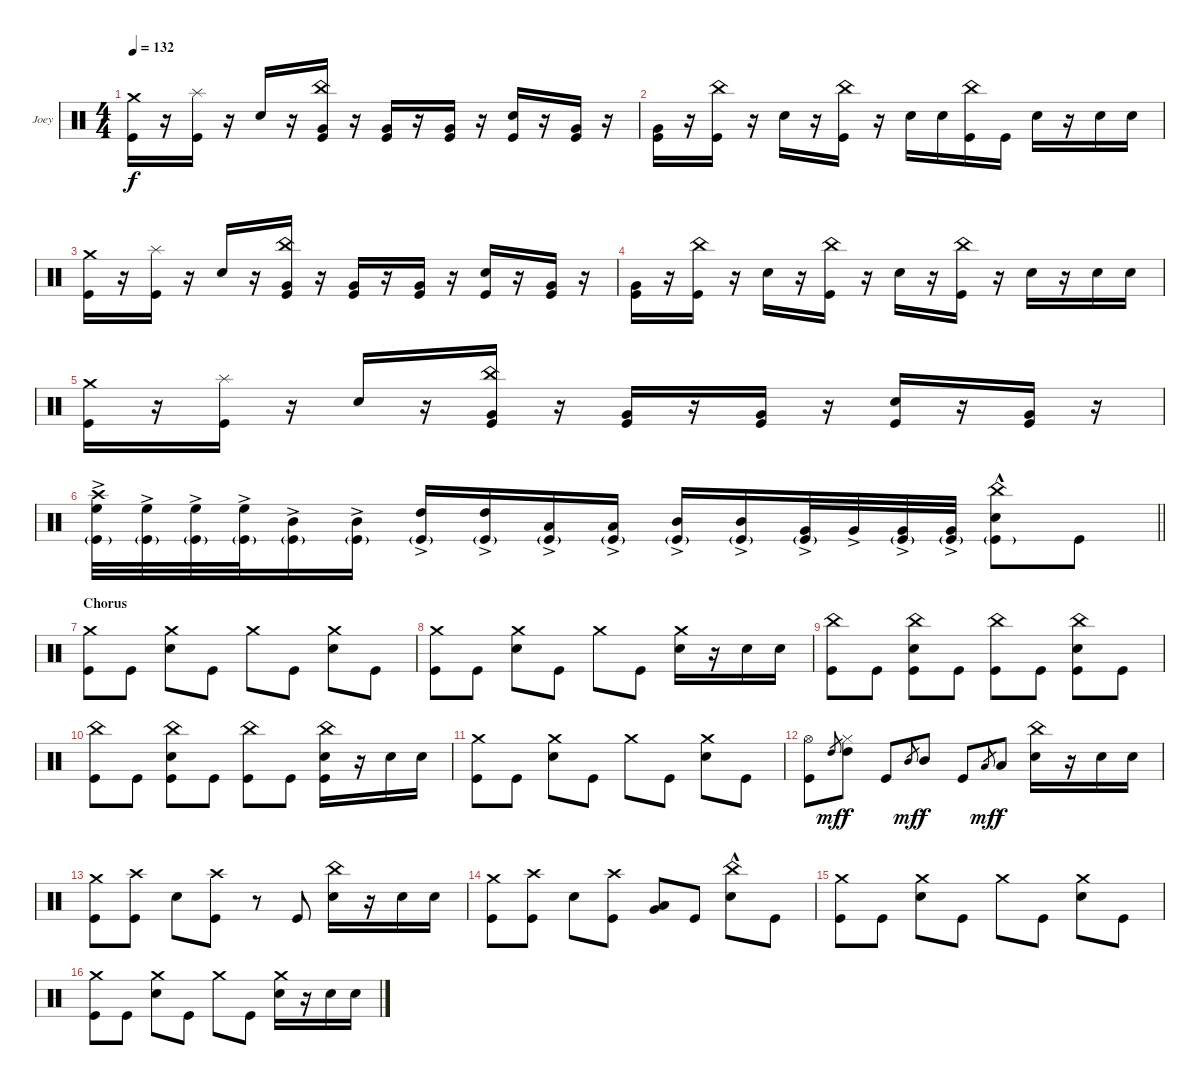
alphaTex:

\bracketExtendMode groupsimilarinstruments
\firstSystemTrackNameOrientation horizontal
\otherSystemsTrackNameOrientation horizontal
\track ("Joey Jordison" "Joey") {instrument percussion}
\staff {score}
\articulation defaults
\ts (4 4)
\tempo 132
\clef neutral
\ks c
("Crash medium (hit)" "Kick (hit)").16{dy f} r.16 ("Splash (hit)" "Kick (hit)").16 r.16 "Snare (hit) 2".16 r.16 ("China (hit)" "Very Low Tom (hit)" "Kick (hit)").16 r.16 ("Very Low Tom (hit)" "Kick (hit)").16 r.16 ("Very Low Tom (hit)" "Kick (hit)").16 r.16 ("Snare (hit) 2" "Kick (hit)").16 r.16 ("Very Low Tom (hit)" "Kick (hit)").16 r.16 |
("Very Low Tom (hit)" "Kick (hit)").16 r.16 ("China (hit)" "Kick (hit)").16 r.16 "Snare (hit) 2".16 r.16 ("China (hit)" "Kick (hit)").16 r.16 "Snare (hit) 2".16 "Snare (hit) 2".16 ("China (hit)" "Kick (hit)").16 "Kick (hit)".16 "Snare (hit) 2".16 r.16 "Snare (hit) 2".16 "Snare (hit) 2".16 |
("Crash medium (hit)" "Kick (hit)").16 r.16 ("Splash (hit)" "Kick (hit)").16 r.16 "Snare (hit) 2".16 r.16 ("China (hit)" "Very Low Tom (hit)" "Kick (hit)").16 r.16 ("Very Low Tom (hit)" "Kick (hit)").16 r.16 ("Very Low Tom (hit)" "Kick (hit)").16 r.16 ("Snare (hit) 2" "Kick (hit)").16 r.16 ("Very Low Tom (hit)" "Kick (hit)").16 r.16 |
("Very Low Tom (hit)" "Kick (hit)").16 r.16 ("China (hit)" "Kick (hit)").16 r.16 "Snare (hit) 2".16 r.16 ("China (hit)" "Kick (hit)").16 r.16 "Snare (hit) 2".16 r.16 ("China (hit)" "Kick (hit)").16 r.16 "Snare (hit) 2".16 r.16 "Snare (hit) 2".16 "Snare (hit) 2".16 |
("Crash medium (hit)" "Kick (hit)").16 r.16 ("Splash (hit)" "Kick (hit)").16 r.16 "Snare (hit) 2".16 r.16 ("China (hit)" "Very Low Tom (hit)" "Kick (hit)").16 r.16 ("Very Low Tom (hit)" "Kick (hit)").16 r.16 ("Very Low Tom (hit)" "Kick (hit)").16 r.16 ("Snare (hit) 2" "Kick (hit)").16 r.16 ("Very Low Tom (hit)" "Kick (hit)").16 r.16 |
\barLineRight lightlight
("High Floor Tom (hit)"{ac} "Crash high (hit)" "Kick (hit)"{g}).32 ("High Floor Tom (hit)"{ac} "Kick (hit)"{g}).32 ("High Floor Tom (hit)"{ac} "Kick (hit)"{g}).32 ("High Floor Tom (hit)"{ac} "Kick (hit)"{g}).32 ("Mid Tom (hit)"{ac} "Kick (hit)"{g}).16 ("Mid Tom (hit)"{ac} "Kick (hit)"{g}).16 ("High Tom (hit)"{ac} "Kick (hit)"{g}).16 ("High Tom (hit)"{ac} "Kick (hit)"{g}).16 ("Low Tom (hit)"{ac} "Kick (hit)"{g}).16 ("Low Tom (hit)"{ac} "Kick (hit)"{g}).16 ("Mid Tom (hit)"{ac} "Kick (hit)"{g}).16 ("Mid Tom (hit)"{ac} "Kick (hit)"{g}).16 ("Very Low Tom (hit)"{ac} "Kick (hit)"{g}).32 "Very Low Tom (hit)"{ac}.32 ("Very Low Tom (hit)"{ac} "Kick (hit)"{g}).32 ("Very Low Tom (hit)"{ac} "Kick (hit)"{g}).32 ("Snare (hit) 2" "China (hit)"{hac} "Kick (hit)"{g}).8 "Kick (hit)".8 |
\section ("" "Chorus")
("Crash medium (hit)" "Kick (hit)").8 "Kick (hit)".8 ("Crash medium (hit)" "Snare (hit) 2").8 "Kick (hit)".8 "Crash medium (hit)".8 "Kick (hit)".8 ("Crash medium (hit)" "Snare (hit) 2").8 "Kick (hit)".8 |
("Crash medium (hit)" "Kick (hit)").8 "Kick (hit)".8 ("Crash medium (hit)" "Snare (hit) 2").8 "Kick (hit)".8 "Crash medium (hit)".8 "Kick (hit)".8 ("Crash medium (hit)" "Snare (hit) 2").16 r.16 "Snare (hit) 2".16 "Snare (hit) 2".16 |
("Kick (hit)" "China (hit)").8 "Kick (hit)".8 ("Snare (hit) 2" "Kick (hit)" "China (hit)").8 "Kick (hit)".8 ("Kick (hit)" "China (hit)").8 "Kick (hit)".8 ("Snare (hit) 2" "Kick (hit)" "China (hit)").8 "Kick (hit)".8 |
("Kick (hit)" "China (hit)").8 "Kick (hit)".8 ("Snare (hit) 2" "Kick (hit)" "China (hit)").8 "Kick (hit)".8 ("Kick (hit)" "China (hit)").8 "Kick (hit)".8 ("Snare (hit) 2" "Kick (hit)" "China (hit)").16 r.16 "Snare (hit) 2".16 "Snare (hit) 2".16 |
("Crash medium (hit)" "Kick (hit)").8 "Kick (hit)".8 ("Crash medium (hit)" "Snare (hit) 2").8 "Kick (hit)".8 "Crash medium (hit)".8 "Kick (hit)".8 ("Crash medium (hit)" "Snare (hit) 2").8 "Kick (hit)".8 |
("Hi-Hat (open)" "Kick (hit)").8 "High Tom (hit)".8{gr dy mf} ("Hi-Hat (closed)" "High Tom (hit)").8{dy f} "Kick (hit)".8 "Mid Tom (hit)".8{gr dy mf} "Mid Tom (hit)".8{dy f} "Kick (hit)".8 "Low Tom (hit)".8{gr dy mf} "Low Tom (hit)".8{dy f} ("Snare (hit) 2" "China (hit)").16 r.16 "Snare (hit) 2".16 "Snare (hit) 2".16 |
("Crash medium (hit)" "Kick (hit)").8 ("Kick (hit)" "Crash high (hit)").8 "Snare (hit) 2".8 ("Kick (hit)" "Crash high (hit)").8 r.8 "Kick (hit)".8 ("Snare (hit) 2" "China (hit)").16 r.16 "Snare (hit) 2".16 "Snare (hit) 2".16 |
("Crash medium (hit)" "Kick (hit)").8 ("Kick (hit)" "Crash high (hit)").8 "Snare (hit) 2".8 ("Kick (hit)" "Crash high (hit)").8 ("Very Low Tom (hit)" "Low Tom (hit)").8 "Kick (hit)".8 ("Snare (hit) 2" "China (hit)"{hac}).8 "Kick (hit)".8 |
("Crash medium (hit)" "Kick (hit)").8 "Kick (hit)".8 ("Crash medium (hit)" "Snare (hit) 2").8 "Kick (hit)".8 "Crash medium (hit)".8 "Kick (hit)".8 ("Crash medium (hit)" "Snare (hit) 2").8 "Kick (hit)".8 |
("Crash medium (hit)" "Kick (hit)").8 "Kick (hit)".8 ("Crash medium (hit)" "Snare (hit) 2").8 "Kick (hit)".8 "Crash medium (hit)".8 "Kick (hit)".8 ("Crash medium (hit)" "Snare (hit) 2").16 r.16 "Snare (hit) 2".16 "Snare (hit) 2".16
